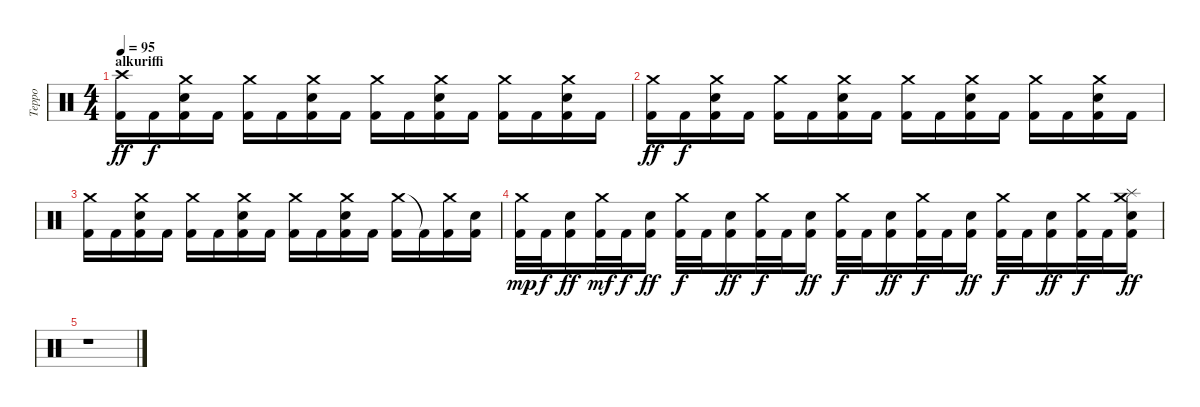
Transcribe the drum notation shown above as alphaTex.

\track ("Teppo" "Teppo") {instrument percussion}
\staff {score}
\articulation defaults
\ts (4 4)
\section ("" "alkuriffi")
\tempo 95
\clef neutral
\ks c
("Crash high (hit)" "Kick (hit) 2").16{dy ff} "Kick (hit) 2".16{dy f} ("Crash medium (hit)" "Electric Snare (hit)" "Kick (hit) 2").16 "Kick (hit) 2".16 ("Crash medium (hit)" "Kick (hit) 2").16 "Kick (hit) 2".16 ("Crash medium (hit)" "Electric Snare (hit)" "Kick (hit) 2").16 "Kick (hit) 2".16 ("Crash medium (hit)" "Kick (hit) 2").16 "Kick (hit) 2".16 ("Crash medium (hit)" "Electric Snare (hit)" "Kick (hit) 2").16 "Kick (hit) 2".16 ("Crash medium (hit)" "Kick (hit) 2").16 "Kick (hit) 2".16 ("Crash medium (hit)" "Electric Snare (hit)" "Kick (hit) 2").16 "Kick (hit) 2".16 |
("Crash medium (hit)" "Kick (hit) 2").16{dy ff} "Kick (hit) 2".16{dy f} ("Crash medium (hit)" "Electric Snare (hit)" "Kick (hit) 2").16 "Kick (hit) 2".16 ("Crash medium (hit)" "Kick (hit) 2").16 "Kick (hit) 2".16 ("Crash medium (hit)" "Electric Snare (hit)" "Kick (hit) 2").16 "Kick (hit) 2".16 ("Crash medium (hit)" "Kick (hit) 2").16 "Kick (hit) 2".16 ("Crash medium (hit)" "Electric Snare (hit)" "Kick (hit) 2").16 "Kick (hit) 2".16 ("Crash medium (hit)" "Kick (hit) 2").16 "Kick (hit) 2".16 ("Crash medium (hit)" "Electric Snare (hit)" "Kick (hit) 2").16 "Kick (hit) 2".16 |
("Crash medium (hit)" "Kick (hit) 2").16 "Kick (hit) 2".16 ("Crash medium (hit)" "Electric Snare (hit)" "Kick (hit) 2").16 "Kick (hit) 2".16 ("Crash medium (hit)" "Kick (hit) 2").16 "Kick (hit) 2".16 ("Crash medium (hit)" "Electric Snare (hit)" "Kick (hit) 2").16 "Kick (hit) 2".16 ("Crash medium (hit)" "Kick (hit) 2").16 "Kick (hit) 2".16 ("Crash medium (hit)" "Electric Snare (hit)" "Kick (hit) 2").16 "Kick (hit) 2".16 ("Crash medium (hit)" "Kick (hit) 2").16 "Kick (hit) 2"{t}.16 ("Crash medium (hit)" "Kick (hit) 2").16 ("Electric Snare (hit)" "Kick (hit) 2").16 |
("Crash medium (hit)" "Kick (hit) 2").32{dy mp} "Kick (hit) 2".32{dy f} ("Electric Snare (hit)" "Kick (hit) 2").16{dy ff} ("Crash medium (hit)" "Kick (hit) 2").32{dy mf} "Kick (hit) 2".32{dy f} ("Electric Snare (hit)" "Kick (hit) 2").16{dy ff} ("Crash medium (hit)" "Kick (hit) 2").32{dy f} "Kick (hit) 2".32 ("Electric Snare (hit)" "Kick (hit) 2").16{dy ff} ("Crash medium (hit)" "Kick (hit) 2").32{dy f} "Kick (hit) 2".32 ("Electric Snare (hit)" "Kick (hit) 2").16{dy ff} ("Crash medium (hit)" "Kick (hit) 2").32{dy f} "Kick (hit) 2".32 ("Electric Snare (hit)" "Kick (hit) 2").16{dy ff} ("Crash medium (hit)" "Kick (hit) 2").32{dy f} "Kick (hit) 2".32 ("Electric Snare (hit)" "Kick (hit) 2").16{dy ff} ("Crash medium (hit)" "Kick (hit) 2").32{dy f} "Kick (hit) 2".32 ("Electric Snare (hit)" "Kick (hit) 2").16{dy ff} ("Crash medium (hit)" "Kick (hit) 2").32{dy f} "Kick (hit) 2".32 ("Splash (hit)" "Crash medium (hit)" "Electric Snare (hit)" "Kick (hit) 2").16{dy ff} |
r.1
